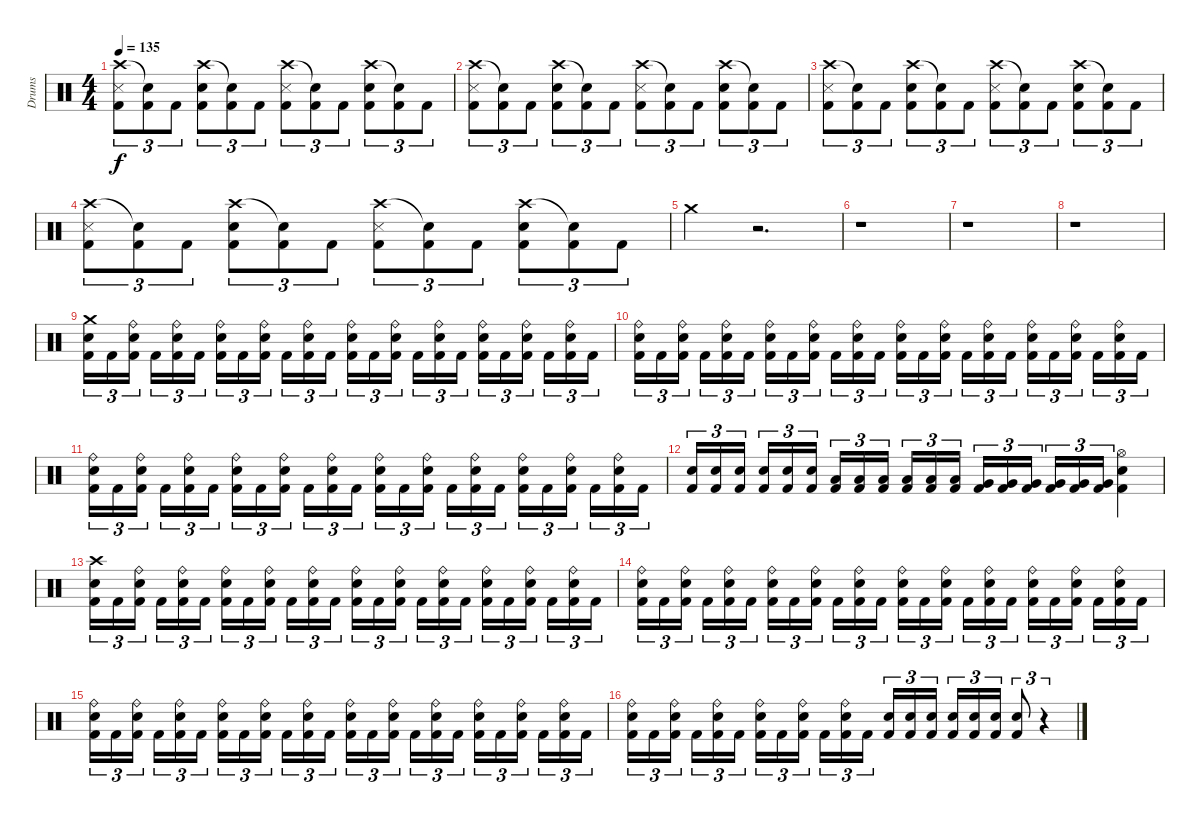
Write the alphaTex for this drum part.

\track ("Drums" "Drums") {instrument percussion}
\staff {score}
\articulation defaults
\ts (4 4)
\tempo 135
\clef neutral
\ks c
("Crash high (hit)" "Snare (side stick) 3" "Kick (hit) 2").8{tu (3 2) dy f} ("Snare (hit)"{t} "Kick (hit) 2").8{tu (3 2)} "Kick (hit) 2".8{tu (3 2)} ("Crash high (hit)" "Electric Snare (hit)" "Kick (hit) 2").8{tu (3 2)} ("Snare (hit)"{t} "Kick (hit) 2").8{tu (3 2)} "Kick (hit) 2".8{tu (3 2)} ("Crash high (hit)" "Snare (side stick) 3" "Kick (hit) 2").8{tu (3 2)} ("Snare (hit)"{t} "Kick (hit) 2").8{tu (3 2)} "Kick (hit) 2".8{tu (3 2)} ("Crash high (hit)" "Electric Snare (hit)" "Kick (hit) 2").8{tu (3 2)} ("Snare (hit)"{t} "Kick (hit) 2").8{tu (3 2)} "Kick (hit) 2".8{tu (3 2)} |
("Crash high (hit)" "Snare (side stick) 3" "Kick (hit) 2").8{tu (3 2)} ("Snare (hit)"{t} "Kick (hit) 2").8{tu (3 2)} "Kick (hit) 2".8{tu (3 2)} ("Crash high (hit)" "Electric Snare (hit)" "Kick (hit) 2").8{tu (3 2)} ("Snare (hit)"{t} "Kick (hit) 2").8{tu (3 2)} "Kick (hit) 2".8{tu (3 2)} ("Crash high (hit)" "Snare (side stick) 3" "Kick (hit) 2").8{tu (3 2)} ("Snare (hit)"{t} "Kick (hit) 2").8{tu (3 2)} "Kick (hit) 2".8{tu (3 2)} ("Crash high (hit)" "Electric Snare (hit)" "Kick (hit) 2").8{tu (3 2)} ("Snare (hit)"{t} "Kick (hit) 2").8{tu (3 2)} "Kick (hit) 2".8{tu (3 2)} |
("Crash high (hit)" "Snare (side stick) 3" "Kick (hit) 2").8{tu (3 2)} ("Snare (hit)"{t} "Kick (hit) 2").8{tu (3 2)} "Kick (hit) 2".8{tu (3 2)} ("Crash high (hit)" "Electric Snare (hit)" "Kick (hit) 2").8{tu (3 2)} ("Snare (hit)"{t} "Kick (hit) 2").8{tu (3 2)} "Kick (hit) 2".8{tu (3 2)} ("Crash high (hit)" "Snare (side stick) 3" "Kick (hit) 2").8{tu (3 2)} ("Snare (hit)"{t} "Kick (hit) 2").8{tu (3 2)} "Kick (hit) 2".8{tu (3 2)} ("Crash high (hit)" "Electric Snare (hit)" "Kick (hit) 2").8{tu (3 2)} ("Snare (hit)"{t} "Kick (hit) 2").8{tu (3 2)} "Kick (hit) 2".8{tu (3 2)} |
("Crash high (hit)" "Snare (side stick) 3" "Kick (hit) 2").8{tu (3 2)} ("Snare (hit)"{t} "Kick (hit) 2").8{tu (3 2)} "Kick (hit) 2".8{tu (3 2)} ("Crash high (hit)" "Electric Snare (hit)" "Kick (hit) 2").8{tu (3 2)} ("Snare (hit)"{t} "Kick (hit) 2").8{tu (3 2)} "Kick (hit) 2".8{tu (3 2)} ("Crash high (hit)" "Snare (side stick) 3" "Kick (hit) 2").8{tu (3 2)} ("Snare (hit)"{t} "Kick (hit) 2").8{tu (3 2)} "Kick (hit) 2".8{tu (3 2)} ("Crash high (hit)" "Electric Snare (hit)" "Kick (hit) 2").8{tu (3 2)} ("Snare (hit)"{t} "Kick (hit) 2").8{tu (3 2)} "Kick (hit) 2".8{tu (3 2)} |
"Crash medium (hit)".4 r.2{d} |
r.1 |
r.1 |
r.1 |
("Crash medium (hit)" "Electric Snare (hit)" "Kick (hit) 2").16{tu (3 2)} "Kick (hit) 2".16{tu (3 2)} ("Ride (bell)" "Electric Snare (hit)" "Kick (hit) 2").16{tu (3 2)} "Kick (hit) 2".16{tu (3 2)} ("Ride (bell)" "Electric Snare (hit)" "Kick (hit) 2").16{tu (3 2)} "Kick (hit) 2".16{tu (3 2)} ("Ride (bell)" "Electric Snare (hit)" "Kick (hit) 2").16{tu (3 2)} "Kick (hit) 2".16{tu (3 2)} ("Ride (bell)" "Electric Snare (hit)" "Kick (hit) 2").16{tu (3 2)} "Kick (hit) 2".16{tu (3 2)} ("Ride (bell)" "Electric Snare (hit)" "Kick (hit) 2").16{tu (3 2)} "Kick (hit) 2".16{tu (3 2)} ("Ride (bell)" "Electric Snare (hit)" "Kick (hit) 2").16{tu (3 2)} "Kick (hit) 2".16{tu (3 2)} ("Ride (bell)" "Electric Snare (hit)" "Kick (hit) 2").16{tu (3 2)} "Kick (hit) 2".16{tu (3 2)} ("Ride (bell)" "Electric Snare (hit)" "Kick (hit) 2").16{tu (3 2)} "Kick (hit) 2".16{tu (3 2)} ("Ride (bell)" "Electric Snare (hit)" "Kick (hit) 2").16{tu (3 2)} "Kick (hit) 2".16{tu (3 2)} ("Ride (bell)" "Electric Snare (hit)" "Kick (hit) 2").16{tu (3 2)} "Kick (hit) 2".16{tu (3 2)} ("Ride (bell)" "Electric Snare (hit)" "Kick (hit) 2").16{tu (3 2)} "Kick (hit) 2".16{tu (3 2)} |
("Ride (bell)" "Electric Snare (hit)" "Kick (hit) 2").16{tu (3 2)} "Kick (hit) 2".16{tu (3 2)} ("Ride (bell)" "Electric Snare (hit)" "Kick (hit) 2").16{tu (3 2)} "Kick (hit) 2".16{tu (3 2)} ("Ride (bell)" "Electric Snare (hit)" "Kick (hit) 2").16{tu (3 2)} "Kick (hit) 2".16{tu (3 2)} ("Ride (bell)" "Electric Snare (hit)" "Kick (hit) 2").16{tu (3 2)} "Kick (hit) 2".16{tu (3 2)} ("Ride (bell)" "Electric Snare (hit)" "Kick (hit) 2").16{tu (3 2)} "Kick (hit) 2".16{tu (3 2)} ("Ride (bell)" "Electric Snare (hit)" "Kick (hit) 2").16{tu (3 2)} "Kick (hit) 2".16{tu (3 2)} ("Ride (bell)" "Electric Snare (hit)" "Kick (hit) 2").16{tu (3 2)} "Kick (hit) 2".16{tu (3 2)} ("Ride (bell)" "Electric Snare (hit)" "Kick (hit) 2").16{tu (3 2)} "Kick (hit) 2".16{tu (3 2)} ("Ride (bell)" "Electric Snare (hit)" "Kick (hit) 2").16{tu (3 2)} "Kick (hit) 2".16{tu (3 2)} ("Ride (bell)" "Electric Snare (hit)" "Kick (hit) 2").16{tu (3 2)} "Kick (hit) 2".16{tu (3 2)} ("Ride (bell)" "Electric Snare (hit)" "Kick (hit) 2").16{tu (3 2)} "Kick (hit) 2".16{tu (3 2)} ("Ride (bell)" "Electric Snare (hit)" "Kick (hit) 2").16{tu (3 2)} "Kick (hit) 2".16{tu (3 2)} |
("Ride (bell)" "Electric Snare (hit)" "Kick (hit) 2").16{tu (3 2)} "Kick (hit) 2".16{tu (3 2)} ("Ride (bell)" "Electric Snare (hit)" "Kick (hit) 2").16{tu (3 2)} "Kick (hit) 2".16{tu (3 2)} ("Ride (bell)" "Electric Snare (hit)" "Kick (hit) 2").16{tu (3 2)} "Kick (hit) 2".16{tu (3 2)} ("Ride (bell)" "Electric Snare (hit)" "Kick (hit) 2").16{tu (3 2)} "Kick (hit) 2".16{tu (3 2)} ("Ride (bell)" "Electric Snare (hit)" "Kick (hit) 2").16{tu (3 2)} "Kick (hit) 2".16{tu (3 2)} ("Ride (bell)" "Electric Snare (hit)" "Kick (hit) 2").16{tu (3 2)} "Kick (hit) 2".16{tu (3 2)} ("Ride (bell)" "Electric Snare (hit)" "Kick (hit) 2").16{tu (3 2)} "Kick (hit) 2".16{tu (3 2)} ("Ride (bell)" "Electric Snare (hit)" "Kick (hit) 2").16{tu (3 2)} "Kick (hit) 2".16{tu (3 2)} ("Ride (bell)" "Electric Snare (hit)" "Kick (hit) 2").16{tu (3 2)} "Kick (hit) 2".16{tu (3 2)} ("Ride (bell)" "Electric Snare (hit)" "Kick (hit) 2").16{tu (3 2)} "Kick (hit) 2".16{tu (3 2)} ("Ride (bell)" "Electric Snare (hit)" "Kick (hit) 2").16{tu (3 2)} "Kick (hit) 2".16{tu (3 2)} ("Ride (bell)" "Electric Snare (hit)" "Kick (hit) 2").16{tu (3 2)} "Kick (hit) 2".16{tu (3 2)} |
("Electric Snare (hit)" "Kick (hit) 2").16{tu (3 2)} ("Electric Snare (hit)" "Kick (hit) 2").16{tu (3 2)} ("Electric Snare (hit)" "Kick (hit) 2").16{tu (3 2)} ("Electric Snare (hit)" "Kick (hit) 2").16{tu (3 2)} ("Electric Snare (hit)" "Kick (hit) 2").16{tu (3 2)} ("Electric Snare (hit)" "Kick (hit) 2").16{tu (3 2)} ("Low Floor Tom (hit)" "Kick (hit) 2").16{tu (3 2)} ("Low Floor Tom (hit)" "Kick (hit) 2").16{tu (3 2)} ("Low Floor Tom (hit)" "Kick (hit) 2").16{tu (3 2)} ("Low Floor Tom (hit)" "Kick (hit) 2").16{tu (3 2)} ("Low Floor Tom (hit)" "Kick (hit) 2").16{tu (3 2)} ("Low Floor Tom (hit)" "Kick (hit) 2").16{tu (3 2)} ("Very Low Tom (hit)" "Kick (hit) 2").16{tu (3 2)} ("Very Low Tom (hit)" "Kick (hit) 2").16{tu (3 2)} ("Very Low Tom (hit)" "Kick (hit) 2").16{tu (3 2)} ("Very Low Tom (hit)" "Kick (hit) 2").16{tu (3 2)} ("Very Low Tom (hit)" "Kick (hit) 2").16{tu (3 2)} ("Very Low Tom (hit)" "Kick (hit) 2").16{tu (3 2)} ("Hi-Hat (open)" "Electric Snare (hit)" "Kick (hit) 2").4 |
("Crash high (hit)" "Electric Snare (hit)" "Kick (hit) 2").16{tu (3 2)} "Kick (hit) 2".16{tu (3 2)} ("Ride (bell)" "Electric Snare (hit)" "Kick (hit) 2").16{tu (3 2)} "Kick (hit) 2".16{tu (3 2)} ("Ride (bell)" "Electric Snare (hit)" "Kick (hit) 2").16{tu (3 2)} "Kick (hit) 2".16{tu (3 2)} ("Ride (bell)" "Electric Snare (hit)" "Kick (hit) 2").16{tu (3 2)} "Kick (hit) 2".16{tu (3 2)} ("Ride (bell)" "Electric Snare (hit)" "Kick (hit) 2").16{tu (3 2)} "Kick (hit) 2".16{tu (3 2)} ("Ride (bell)" "Electric Snare (hit)" "Kick (hit) 2").16{tu (3 2)} "Kick (hit) 2".16{tu (3 2)} ("Ride (bell)" "Electric Snare (hit)" "Kick (hit) 2").16{tu (3 2)} "Kick (hit) 2".16{tu (3 2)} ("Ride (bell)" "Electric Snare (hit)" "Kick (hit) 2").16{tu (3 2)} "Kick (hit) 2".16{tu (3 2)} ("Ride (bell)" "Electric Snare (hit)" "Kick (hit) 2").16{tu (3 2)} "Kick (hit) 2".16{tu (3 2)} ("Ride (bell)" "Electric Snare (hit)" "Kick (hit) 2").16{tu (3 2)} "Kick (hit) 2".16{tu (3 2)} ("Ride (bell)" "Electric Snare (hit)" "Kick (hit) 2").16{tu (3 2)} "Kick (hit) 2".16{tu (3 2)} ("Ride (bell)" "Electric Snare (hit)" "Kick (hit) 2").16{tu (3 2)} "Kick (hit) 2".16{tu (3 2)} |
("Ride (bell)" "Electric Snare (hit)" "Kick (hit) 2").16{tu (3 2)} "Kick (hit) 2".16{tu (3 2)} ("Ride (bell)" "Electric Snare (hit)" "Kick (hit) 2").16{tu (3 2)} "Kick (hit) 2".16{tu (3 2)} ("Ride (bell)" "Electric Snare (hit)" "Kick (hit) 2").16{tu (3 2)} "Kick (hit) 2".16{tu (3 2)} ("Ride (bell)" "Electric Snare (hit)" "Kick (hit) 2").16{tu (3 2)} "Kick (hit) 2".16{tu (3 2)} ("Ride (bell)" "Electric Snare (hit)" "Kick (hit) 2").16{tu (3 2)} "Kick (hit) 2".16{tu (3 2)} ("Ride (bell)" "Electric Snare (hit)" "Kick (hit) 2").16{tu (3 2)} "Kick (hit) 2".16{tu (3 2)} ("Ride (bell)" "Electric Snare (hit)" "Kick (hit) 2").16{tu (3 2)} "Kick (hit) 2".16{tu (3 2)} ("Ride (bell)" "Electric Snare (hit)" "Kick (hit) 2").16{tu (3 2)} "Kick (hit) 2".16{tu (3 2)} ("Ride (bell)" "Electric Snare (hit)" "Kick (hit) 2").16{tu (3 2)} "Kick (hit) 2".16{tu (3 2)} ("Ride (bell)" "Electric Snare (hit)" "Kick (hit) 2").16{tu (3 2)} "Kick (hit) 2".16{tu (3 2)} ("Ride (bell)" "Electric Snare (hit)" "Kick (hit) 2").16{tu (3 2)} "Kick (hit) 2".16{tu (3 2)} ("Ride (bell)" "Electric Snare (hit)" "Kick (hit) 2").16{tu (3 2)} "Kick (hit) 2".16{tu (3 2)} |
("Ride (bell)" "Electric Snare (hit)" "Kick (hit) 2").16{tu (3 2)} "Kick (hit) 2".16{tu (3 2)} ("Ride (bell)" "Electric Snare (hit)" "Kick (hit) 2").16{tu (3 2)} "Kick (hit) 2".16{tu (3 2)} ("Ride (bell)" "Electric Snare (hit)" "Kick (hit) 2").16{tu (3 2)} "Kick (hit) 2".16{tu (3 2)} ("Ride (bell)" "Electric Snare (hit)" "Kick (hit) 2").16{tu (3 2)} "Kick (hit) 2".16{tu (3 2)} ("Ride (bell)" "Electric Snare (hit)" "Kick (hit) 2").16{tu (3 2)} "Kick (hit) 2".16{tu (3 2)} ("Ride (bell)" "Electric Snare (hit)" "Kick (hit) 2").16{tu (3 2)} "Kick (hit) 2".16{tu (3 2)} ("Ride (bell)" "Electric Snare (hit)" "Kick (hit) 2").16{tu (3 2)} "Kick (hit) 2".16{tu (3 2)} ("Ride (bell)" "Electric Snare (hit)" "Kick (hit) 2").16{tu (3 2)} "Kick (hit) 2".16{tu (3 2)} ("Ride (bell)" "Electric Snare (hit)" "Kick (hit) 2").16{tu (3 2)} "Kick (hit) 2".16{tu (3 2)} ("Ride (bell)" "Electric Snare (hit)" "Kick (hit) 2").16{tu (3 2)} "Kick (hit) 2".16{tu (3 2)} ("Ride (bell)" "Electric Snare (hit)" "Kick (hit) 2").16{tu (3 2)} "Kick (hit) 2".16{tu (3 2)} ("Ride (bell)" "Electric Snare (hit)" "Kick (hit) 2").16{tu (3 2)} "Kick (hit) 2".16{tu (3 2)} |
("Ride (bell)" "Electric Snare (hit)" "Kick (hit) 2").16{tu (3 2)} "Kick (hit) 2".16{tu (3 2)} ("Ride (bell)" "Electric Snare (hit)" "Kick (hit) 2").16{tu (3 2)} "Kick (hit) 2".16{tu (3 2)} ("Ride (bell)" "Electric Snare (hit)" "Kick (hit) 2").16{tu (3 2)} "Kick (hit) 2".16{tu (3 2)} ("Ride (bell)" "Electric Snare (hit)" "Kick (hit) 2").16{tu (3 2)} "Kick (hit) 2".16{tu (3 2)} ("Ride (bell)" "Electric Snare (hit)" "Kick (hit) 2").16{tu (3 2)} "Kick (hit) 2".16{tu (3 2)} ("Ride (bell)" "Electric Snare (hit)" "Kick (hit) 2").16{tu (3 2)} "Kick (hit) 2".16{tu (3 2)} ("Electric Snare (hit)" "Kick (hit) 2").16{tu (3 2)} ("Electric Snare (hit)" "Kick (hit) 2").16{tu (3 2)} ("Electric Snare (hit)" "Kick (hit) 2").16{tu (3 2)} ("Electric Snare (hit)" "Kick (hit) 2").16{tu (3 2)} ("Electric Snare (hit)" "Kick (hit) 2").16{tu (3 2)} ("Electric Snare (hit)" "Kick (hit) 2").16{tu (3 2)} ("Electric Snare (hit)" "Kick (hit) 2").8{tu (3 2)} r.4{tu (3 2)}
